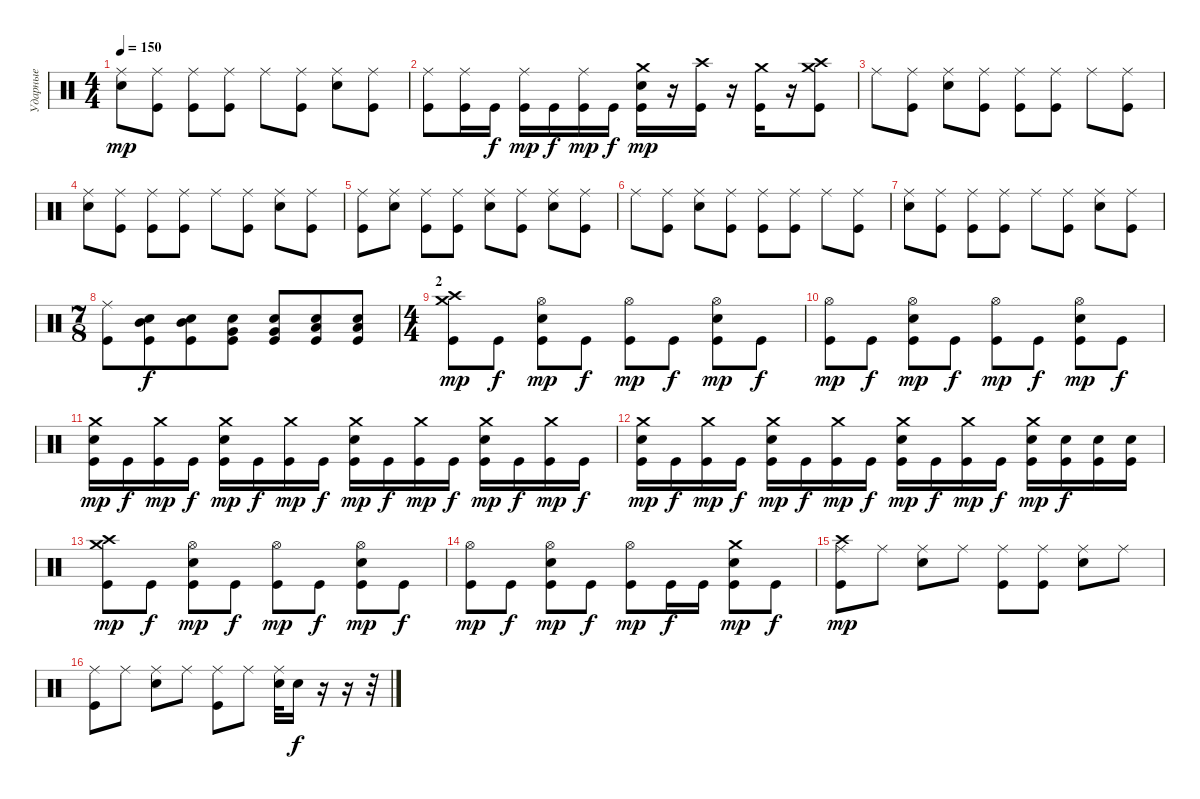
\track ("Ударные" "Ударные") {instrument percussion}
\staff {score}
\articulation defaults
\ts (4 4)
\tempo 150
\clef neutral
\ks c
("Ride (middle)" "Electric Snare (hit)").8{dy mp} ("Ride (middle)" "Kick (hit)").8 ("Ride (middle)" "Kick (hit)").8 ("Ride (middle)" "Kick (hit)").8 "Ride (middle)".8 ("Ride (middle)" "Kick (hit)").8 ("Ride (middle)" "Electric Snare (hit)").8 ("Ride (middle)" "Kick (hit)").8 |
("Ride (middle)" "Kick (hit)").8 ("Ride (middle)" "Kick (hit)").16 "Kick (hit)".16{dy f} ("Ride (middle)" "Kick (hit)").16{dy mp} "Kick (hit)".16{dy f} ("Ride (middle)" "Kick (hit)").16{dy mp} "Kick (hit)".16{dy f} ("Crash medium (hit)" "Electric Snare (hit)" "Kick (hit)").16{dy mp} r.16 ("Crash high (hit)" "Kick (hit)").16 r.16 ("Crash medium (hit)" "Kick (hit)").16 r.16 ("Crash high (hit)" "Crash medium (hit)" "Kick (hit)").8 |
"Ride (middle)".8 ("Ride (middle)" "Kick (hit)").8 ("Ride (middle)" "Electric Snare (hit)").8 ("Ride (middle)" "Kick (hit)").8 ("Ride (middle)" "Kick (hit)").8 ("Ride (middle)" "Kick (hit)").8 "Ride (middle)".8 ("Ride (middle)" "Kick (hit)").8 |
("Ride (middle)" "Electric Snare (hit)").8 ("Ride (middle)" "Kick (hit)").8 ("Ride (middle)" "Kick (hit)").8 ("Ride (middle)" "Kick (hit)").8 "Ride (middle)".8 ("Ride (middle)" "Kick (hit)").8 ("Ride (middle)" "Electric Snare (hit)").8 ("Ride (middle)" "Kick (hit)").8 |
("Ride (middle)" "Kick (hit)").8 ("Ride (middle)" "Electric Snare (hit)").8 ("Ride (middle)" "Kick (hit)").8 ("Ride (middle)" "Kick (hit)").8 ("Ride (middle)" "Electric Snare (hit)").8 ("Ride (middle)" "Kick (hit)").8 ("Ride (middle)" "Electric Snare (hit)").8 ("Ride (middle)" "Kick (hit)").8 |
"Ride (middle)".8 ("Ride (middle)" "Kick (hit)").8 ("Ride (middle)" "Electric Snare (hit)").8 ("Ride (middle)" "Kick (hit)").8 ("Ride (middle)" "Kick (hit)").8 ("Ride (middle)" "Kick (hit)").8 "Ride (middle)".8 ("Ride (middle)" "Kick (hit)").8 |
("Ride (middle)" "Electric Snare (hit)").8 ("Ride (middle)" "Kick (hit)").8 ("Ride (middle)" "Kick (hit)").8 ("Ride (middle)" "Kick (hit)").8 "Ride (middle)".8 ("Ride (middle)" "Kick (hit)").8 ("Ride (middle)" "Electric Snare (hit)").8 ("Ride (middle)" "Kick (hit)").8 |
\ts (7 8)
("Ride (middle)" "Kick (hit)").8 ("Mid Tom (hit)" "Electric Snare (hit)" "Kick (hit)").8{dy f} ("Mid Tom (hit)" "Electric Snare (hit)" "Kick (hit)").8 ("Very Low Tom (hit)" "Electric Snare (hit)" "Kick (hit)").8 ("Very Low Tom (hit)" "Electric Snare (hit)" "Kick (hit)").8 ("Low Floor Tom (hit)" "Electric Snare (hit)" "Kick (hit)").8 ("Low Floor Tom (hit)" "Electric Snare (hit)" "Kick (hit)").8 |
\ts (4 4)
\section ("" "2")
("Crash medium (hit)" "Crash high (hit)" "Kick (hit)").8{dy mp} "Kick (hit)".8{dy f} ("Hi-Hat (open)" "Electric Snare (hit)" "Kick (hit)").8{dy mp} "Kick (hit)".8{dy f} ("Hi-Hat (open)" "Kick (hit)").8{dy mp} "Kick (hit)".8{dy f} ("Hi-Hat (open)" "Electric Snare (hit)" "Kick (hit)").8{dy mp} "Kick (hit)".8{dy f} |
("Hi-Hat (open)" "Kick (hit)").8{dy mp} "Kick (hit)".8{dy f} ("Hi-Hat (open)" "Electric Snare (hit)" "Kick (hit)").8{dy mp} "Kick (hit)".8{dy f} ("Hi-Hat (open)" "Kick (hit)").8{dy mp} "Kick (hit)".8{dy f} ("Hi-Hat (open)" "Electric Snare (hit)" "Kick (hit)").8{dy mp} "Kick (hit)".8{dy f} |
("Crash medium (hit)" "Electric Snare (hit)" "Kick (hit)").16{dy mp} "Kick (hit)".16{dy f} ("Crash medium (hit)" "Kick (hit)").16{dy mp} "Kick (hit)".16{dy f} ("Crash medium (hit)" "Electric Snare (hit)" "Kick (hit)").16{dy mp} "Kick (hit)".16{dy f} ("Crash medium (hit)" "Kick (hit)").16{dy mp} "Kick (hit)".16{dy f} ("Crash medium (hit)" "Electric Snare (hit)" "Kick (hit)").16{dy mp} "Kick (hit)".16{dy f} ("Crash medium (hit)" "Kick (hit)").16{dy mp} "Kick (hit)".16{dy f} ("Crash medium (hit)" "Electric Snare (hit)" "Kick (hit)").16{dy mp} "Kick (hit)".16{dy f} ("Crash medium (hit)" "Kick (hit)").16{dy mp} "Kick (hit)".16{dy f} |
("Crash medium (hit)" "Electric Snare (hit)" "Kick (hit)").16{dy mp} "Kick (hit)".16{dy f} ("Crash medium (hit)" "Kick (hit)").16{dy mp} "Kick (hit)".16{dy f} ("Crash medium (hit)" "Electric Snare (hit)" "Kick (hit)").16{dy mp} "Kick (hit)".16{dy f} ("Crash medium (hit)" "Kick (hit)").16{dy mp} "Kick (hit)".16{dy f} ("Crash medium (hit)" "Electric Snare (hit)" "Kick (hit)").16{dy mp} "Kick (hit)".16{dy f} ("Crash medium (hit)" "Kick (hit)").16{dy mp} "Kick (hit)".16{dy f} ("Crash medium (hit)" "Electric Snare (hit)" "Kick (hit)").16{dy mp} ("Electric Snare (hit)" "Kick (hit)").16{dy f} ("Electric Snare (hit)" "Kick (hit)").16 ("Electric Snare (hit)" "Kick (hit)").16 |
("Crash medium (hit)" "Crash high (hit)" "Kick (hit)").8{dy mp} "Kick (hit)".8{dy f} ("Hi-Hat (open)" "Electric Snare (hit)" "Kick (hit)").8{dy mp} "Kick (hit)".8{dy f} ("Hi-Hat (open)" "Kick (hit)").8{dy mp} "Kick (hit)".8{dy f} ("Hi-Hat (open)" "Electric Snare (hit)" "Kick (hit)").8{dy mp} "Kick (hit)".8{dy f} |
("Hi-Hat (open)" "Kick (hit)").8{dy mp} "Kick (hit)".8{dy f} ("Hi-Hat (open)" "Electric Snare (hit)" "Kick (hit)").8{dy mp} "Kick (hit)".8{dy f} ("Hi-Hat (open)" "Kick (hit)").8{dy mp} "Kick (hit)".16{dy f} "Kick (hit)".16 ("Crash medium (hit)" "Electric Snare (hit)" "Kick (hit)").8{dy mp} "Kick (hit)".8{dy f} |
("Crash high (hit)" "Ride (middle)" "Kick (hit)").8{dy mp} "Ride (middle)".8 ("Ride (middle)" "Electric Snare (hit)").8 "Ride (middle)".8 ("Ride (middle)" "Kick (hit)").8 ("Ride (middle)" "Kick (hit)").8 ("Ride (middle)" "Electric Snare (hit)").8 "Ride (middle)".8 |
("Ride (middle)" "Kick (hit)").8 "Ride (middle)".8 ("Ride (middle)" "Electric Snare (hit)").8 "Ride (middle)".8 ("Ride (middle)" "Kick (hit)").8 "Ride (middle)".8 ("Ride (middle)" "Electric Snare (hit)").32 "Electric Snare (hit)".16{dy f} r.16 r.16 r.32
